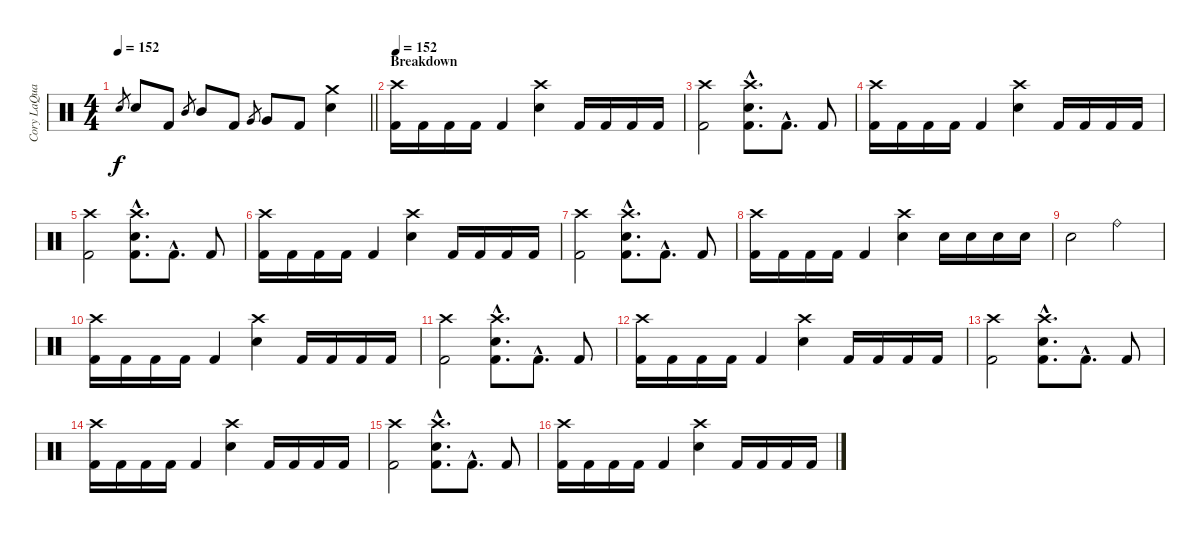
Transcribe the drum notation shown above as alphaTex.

\track ("Cory LaQuay" "Cory LaQua") {instrument percussion}
\staff {score}
\articulation defaults
\ts (4 4)
\tempo 152
\clef neutral
\barLineRight lightlight
\ks c "Snare (hit) 2".8{gr dy f} "Snare (hit) 2".8 "Kick (hit) 2".8 "Mid Tom (hit)".8{gr} "Mid Tom (hit)".8 "Kick (hit) 2".8 "Very Low Tom (hit)".8{gr} "Very Low Tom (hit)".8 "Kick (hit) 2".8
("Crash medium (hit)" "Snare (hit) 2").4 |
\section ("" "Breakdown")
\tempo 152
("Crash high (hit)" "Kick (hit) 2").16 "Kick (hit) 2".16 "Kick (hit) 2".16 "Kick (hit) 2".16 "Kick (hit) 2".4 ("Crash high (hit)" "Snare (hit) 2").4 "Kick (hit) 2".16 "Kick (hit) 2".16 "Kick (hit) 2".16 "Kick (hit) 2".16 |
("Crash high (hit)" "Kick (hit) 2").2 ("Crash high (hit)"{hac} "Snare (hit) 2"{hac} "Kick (hit) 2"{hac}).8{d} "Kick (hit) 2"{hac}.8{d} "Kick (hit) 2".8 |
("Crash high (hit)" "Kick (hit) 2").16 "Kick (hit) 2".16 "Kick (hit) 2".16 "Kick (hit) 2".16 "Kick (hit) 2".4 ("Crash high (hit)" "Snare (hit) 2").4 "Kick (hit) 2".16 "Kick (hit) 2".16 "Kick (hit) 2".16 "Kick (hit) 2".16 |
("Crash high (hit)" "Kick (hit) 2").2 ("Crash high (hit)"{hac} "Snare (hit) 2"{hac} "Kick (hit) 2"{hac}).8{d} "Kick (hit) 2"{hac}.8{d} "Kick (hit) 2".8 |
("Crash high (hit)" "Kick (hit) 2").16 "Kick (hit) 2".16 "Kick (hit) 2".16 "Kick (hit) 2".16 "Kick (hit) 2".4 ("Crash high (hit)" "Snare (hit) 2").4 "Kick (hit) 2".16 "Kick (hit) 2".16 "Kick (hit) 2".16 "Kick (hit) 2".16 |
("Crash high (hit)" "Kick (hit) 2").2 ("Crash high (hit)"{hac} "Snare (hit) 2"{hac} "Kick (hit) 2"{hac}).8{d} "Kick (hit) 2"{hac}.8{d} "Kick (hit) 2".8 |
("Crash high (hit)" "Kick (hit) 2").16 "Kick (hit) 2".16 "Kick (hit) 2".16 "Kick (hit) 2".16 "Kick (hit) 2".4 ("Crash high (hit)" "Snare (hit) 2").4 "Snare (hit) 2".16 "Snare (hit) 2".16 "Snare (hit) 2".16 "Snare (hit) 2".16 |
"Snare (hit) 2".2 "Ride (bell)".2 |
("Crash high (hit)" "Kick (hit) 2").16 "Kick (hit) 2".16 "Kick (hit) 2".16 "Kick (hit) 2".16 "Kick (hit) 2".4 ("Crash high (hit)" "Snare (hit) 2").4 "Kick (hit) 2".16 "Kick (hit) 2".16 "Kick (hit) 2".16 "Kick (hit) 2".16 |
("Crash high (hit)" "Kick (hit) 2").2 ("Crash high (hit)"{hac} "Snare (hit) 2"{hac} "Kick (hit) 2"{hac}).8{d} "Kick (hit) 2"{hac}.8{d} "Kick (hit) 2".8 |
("Crash high (hit)" "Kick (hit) 2").16 "Kick (hit) 2".16 "Kick (hit) 2".16 "Kick (hit) 2".16 "Kick (hit) 2".4 ("Crash high (hit)" "Snare (hit) 2").4 "Kick (hit) 2".16 "Kick (hit) 2".16 "Kick (hit) 2".16 "Kick (hit) 2".16 |
("Crash high (hit)" "Kick (hit) 2").2 ("Crash high (hit)"{hac} "Snare (hit) 2"{hac} "Kick (hit) 2"{hac}).8{d} "Kick (hit) 2"{hac}.8{d} "Kick (hit) 2".8 |
("Crash high (hit)" "Kick (hit) 2").16 "Kick (hit) 2".16 "Kick (hit) 2".16 "Kick (hit) 2".16 "Kick (hit) 2".4 ("Crash high (hit)" "Snare (hit) 2").4 "Kick (hit) 2".16 "Kick (hit) 2".16 "Kick (hit) 2".16 "Kick (hit) 2".16 |
("Crash high (hit)" "Kick (hit) 2").2 ("Crash high (hit)"{hac} "Snare (hit) 2"{hac} "Kick (hit) 2"{hac}).8{d} "Kick (hit) 2"{hac}.8{d} "Kick (hit) 2".8 |
("Crash high (hit)" "Kick (hit) 2").16 "Kick (hit) 2".16 "Kick (hit) 2".16 "Kick (hit) 2".16 "Kick (hit) 2".4 ("Crash high (hit)" "Snare (hit) 2").4 "Kick (hit) 2".16 "Kick (hit) 2".16 "Kick (hit) 2".16 "Kick (hit) 2".16
